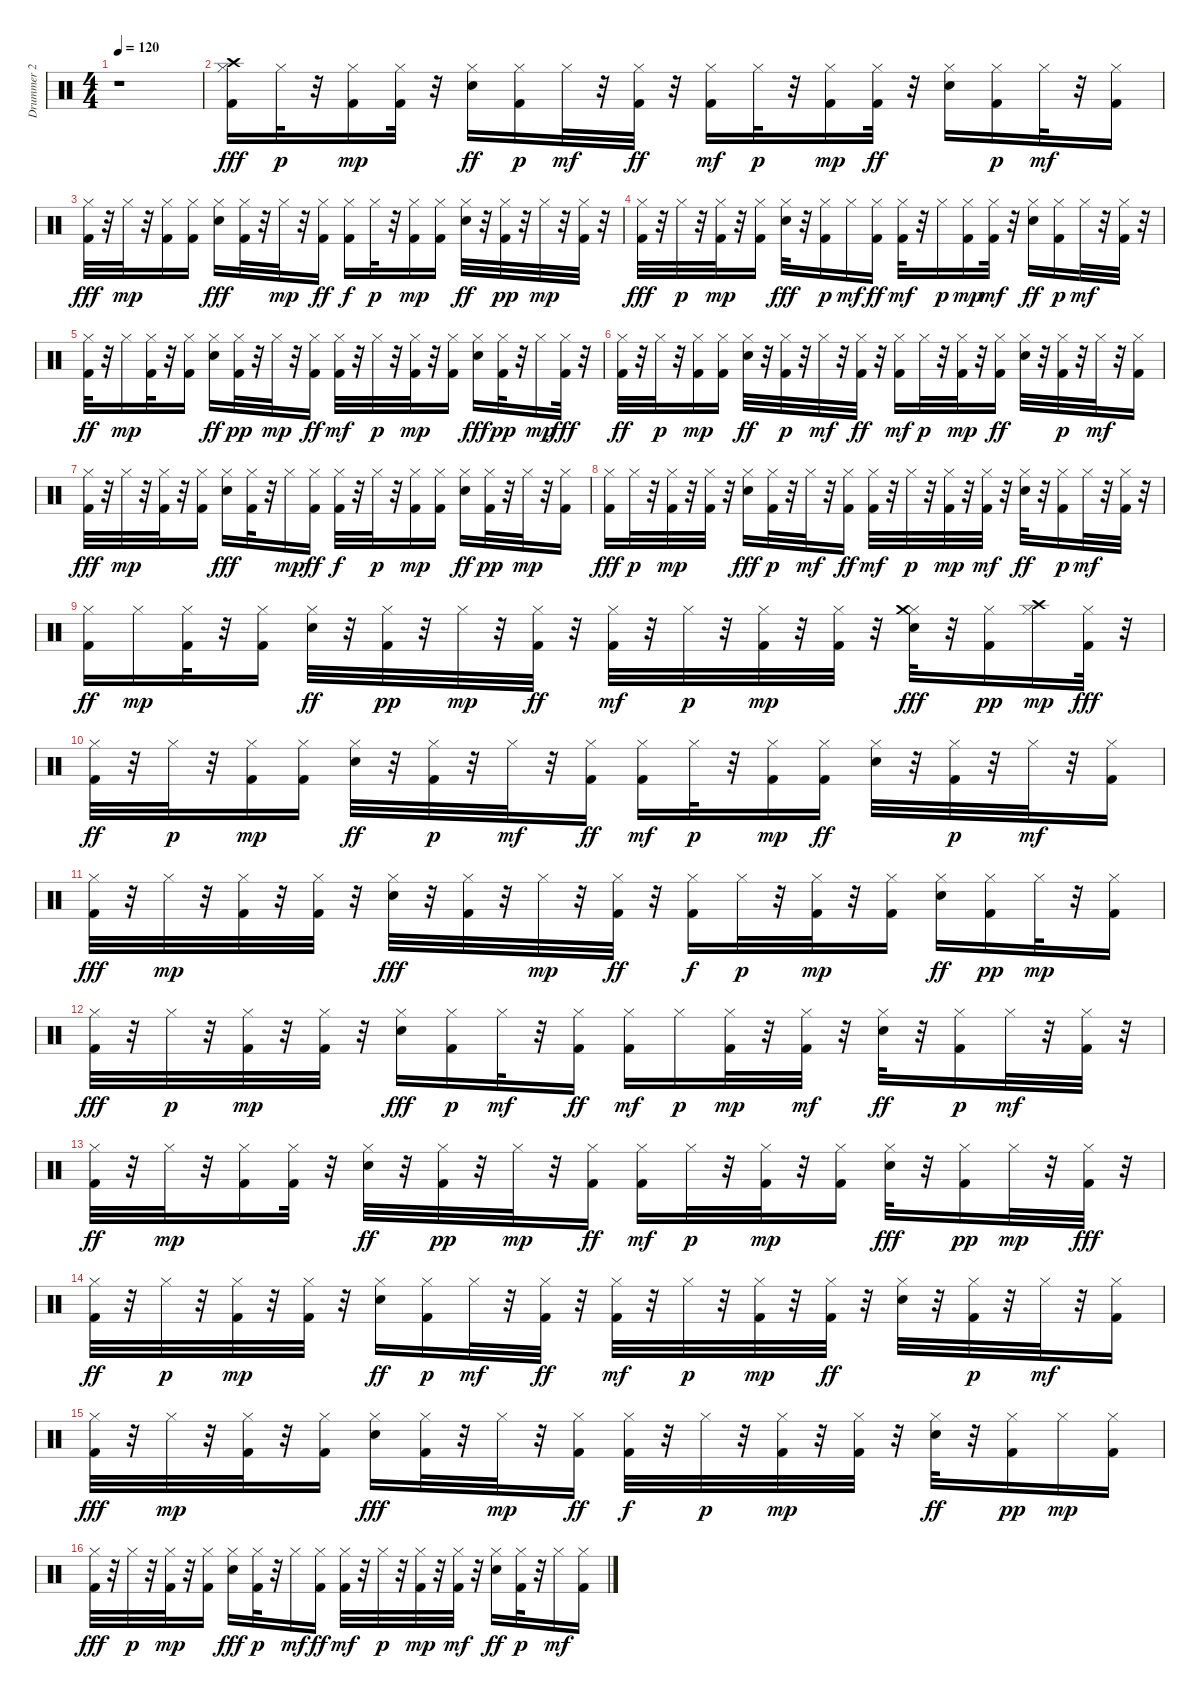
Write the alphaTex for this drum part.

\track ("Drummer 2" "Drummer 2") {instrument percussion}
\staff {score}
\articulation defaults
\ts (4 4)
\tempo 120
\clef neutral
\ks c
r.1{dy fff} |
("Kick (hit) 2" "Hi-Hat (closed)" "Crash high (hit)").16 "Hi-Hat (closed)".32{dy p} r.32 ("Kick (hit) 2" "Hi-Hat (closed)").16{dy mp} ("Kick (hit) 2" "Hi-Hat (closed)").32 r.32 ("Hi-Hat (closed)" "Snare (hit) 2").16{dy ff} ("Kick (hit) 2" "Hi-Hat (closed)").16{dy p} "Hi-Hat (closed)".32{dy mf} r.32 ("Kick (hit) 2" "Hi-Hat (closed)").32{dy ff} r.32 ("Kick (hit) 2" "Hi-Hat (closed)").16{dy mf} "Hi-Hat (closed)".32{dy p} r.32 ("Kick (hit) 2" "Hi-Hat (closed)").16{dy mp} ("Kick (hit) 2" "Hi-Hat (closed)").32{dy ff} r.32 ("Hi-Hat (closed)" "Snare (hit) 2").16 ("Kick (hit) 2" "Hi-Hat (closed)").16{dy p} "Hi-Hat (closed)".32{dy mf} r.32 ("Kick (hit) 2" "Hi-Hat (closed)").16 |
("Hi-Hat (closed)" "Kick (hit) 2").32{dy fff} r.32 "Hi-Hat (closed)".32{dy mp} r.32 ("Kick (hit) 2" "Hi-Hat (closed)").16 ("Kick (hit) 2" "Hi-Hat (closed)").16 ("Hi-Hat (closed)" "Snare (hit) 2").16{dy fff} ("Hi-Hat (closed)" "Kick (hit) 2").32 r.32 "Hi-Hat (closed)".32{dy mp} r.32 ("Kick (hit) 2" "Hi-Hat (closed)").16{dy ff} ("Hi-Hat (closed)" "Kick (hit) 2").16{dy f} "Hi-Hat (closed)".32{dy p} r.32 ("Kick (hit) 2" "Hi-Hat (closed)").16{dy mp} ("Kick (hit) 2" "Hi-Hat (closed)").16 ("Hi-Hat (closed)" "Snare (hit) 2").32{dy ff} r.32 ("Kick (hit) 2" "Hi-Hat (closed)").32{dy pp} r.32 "Hi-Hat (closed)".32{dy mp} r.32 ("Kick (hit) 2" "Hi-Hat (closed)").32 r.32 |
("Hi-Hat (closed)" "Kick (hit) 2").32{dy fff} r.32 "Hi-Hat (closed)".32{dy p} r.32 ("Kick (hit) 2" "Hi-Hat (closed)").32{dy mp} r.32 ("Kick (hit) 2" "Hi-Hat (closed)").16 ("Hi-Hat (closed)" "Snare (hit) 2").32{dy fff} r.32 ("Kick (hit) 2" "Hi-Hat (closed)").16{dy p} "Hi-Hat (closed)".16{dy mf} ("Hi-Hat (closed)" "Kick (hit) 2").16{dy ff} ("Kick (hit) 2" "Hi-Hat (closed)").32{dy mf} r.32 "Hi-Hat (closed)".16{dy p} ("Kick (hit) 2" "Hi-Hat (closed)").16{dy mp} ("Hi-Hat (closed)" "Kick (hit) 2").32{dy mf} r.32 ("Hi-Hat (closed)" "Snare (hit) 2").16{dy ff} ("Kick (hit) 2" "Hi-Hat (closed)").16{dy p} "Hi-Hat (closed)".32{dy mf} r.32 ("Kick (hit) 2" "Hi-Hat (closed)").32 r.32 |
("Kick (hit) 2" "Hi-Hat (closed)").32{dy ff} r.32 "Hi-Hat (closed)".16{dy mp} ("Kick (hit) 2" "Hi-Hat (closed)").32 r.32 ("Kick (hit) 2" "Hi-Hat (closed)").16 ("Hi-Hat (closed)" "Snare (hit) 2").16{dy ff} ("Kick (hit) 2" "Hi-Hat (closed)").32{dy pp} r.32 "Hi-Hat (closed)".32{dy mp} r.32 ("Kick (hit) 2" "Hi-Hat (closed)").16{dy ff} ("Kick (hit) 2" "Hi-Hat (closed)").32{dy mf} r.32 "Hi-Hat (closed)".32{dy p} r.32 ("Kick (hit) 2" "Hi-Hat (closed)").32{dy mp} r.32 ("Kick (hit) 2" "Hi-Hat (closed)").16 ("Hi-Hat (closed)" "Snare (hit) 2").16{dy fff} ("Kick (hit) 2" "Hi-Hat (closed)").32{dy pp} r.32 "Hi-Hat (closed)".16{dy mp} ("Hi-Hat (closed)" "Kick (hit) 2").32{dy fff} r.32 |
("Kick (hit) 2" "Hi-Hat (closed)").32{dy ff} r.32 "Hi-Hat (closed)".32{dy p} r.32 ("Kick (hit) 2" "Hi-Hat (closed)").16{dy mp} ("Kick (hit) 2" "Hi-Hat (closed)").16 ("Hi-Hat (closed)" "Snare (hit) 2").32{dy ff} r.32 ("Kick (hit) 2" "Hi-Hat (closed)").32{dy p} r.32 "Hi-Hat (closed)".32{dy mf} r.32 ("Kick (hit) 2" "Hi-Hat (closed)").32{dy ff} r.32 ("Kick (hit) 2" "Hi-Hat (closed)").16{dy mf} "Hi-Hat (closed)".32{dy p} r.32 ("Kick (hit) 2" "Hi-Hat (closed)").32{dy mp} r.32 ("Kick (hit) 2" "Hi-Hat (closed)").16{dy ff} ("Hi-Hat (closed)" "Snare (hit) 2").32 r.32 ("Kick (hit) 2" "Hi-Hat (closed)").32{dy p} r.32 "Hi-Hat (closed)".32{dy mf} r.32 ("Kick (hit) 2" "Hi-Hat (closed)").16 |
("Hi-Hat (closed)" "Kick (hit) 2").32{dy fff} r.32 "Hi-Hat (closed)".32{dy mp} r.32 ("Kick (hit) 2" "Hi-Hat (closed)").32 r.32 ("Kick (hit) 2" "Hi-Hat (closed)").16 ("Hi-Hat (closed)" "Snare (hit) 2").16{dy fff} ("Hi-Hat (closed)" "Kick (hit) 2").32 r.32 "Hi-Hat (closed)".16{dy mp} ("Kick (hit) 2" "Hi-Hat (closed)").16{dy ff} ("Hi-Hat (closed)" "Kick (hit) 2").32{dy f} r.32 "Hi-Hat (closed)".32{dy p} r.32 ("Kick (hit) 2" "Hi-Hat (closed)").16{dy mp} ("Kick (hit) 2" "Hi-Hat (closed)").16 ("Hi-Hat (closed)" "Snare (hit) 2").16{dy ff} ("Kick (hit) 2" "Hi-Hat (closed)").32{dy pp} r.32 "Hi-Hat (closed)".32{dy mp} r.32 ("Kick (hit) 2" "Hi-Hat (closed)").16 |
("Hi-Hat (closed)" "Kick (hit) 2").16{dy fff} "Hi-Hat (closed)".32{dy p} r.32 ("Kick (hit) 2" "Hi-Hat (closed)").32{dy mp} r.32 ("Kick (hit) 2" "Hi-Hat (closed)").32 r.32 ("Hi-Hat (closed)" "Snare (hit) 2").16{dy fff} ("Kick (hit) 2" "Hi-Hat (closed)").32{dy p} r.32 "Hi-Hat (closed)".32{dy mf} r.32 ("Hi-Hat (closed)" "Kick (hit) 2").16{dy ff} ("Kick (hit) 2" "Hi-Hat (closed)").32{dy mf} r.32 "Hi-Hat (closed)".32{dy p} r.32 ("Kick (hit) 2" "Hi-Hat (closed)").32{dy mp} r.32 ("Hi-Hat (closed)" "Kick (hit) 2").32{dy mf} r.32 ("Hi-Hat (closed)" "Snare (hit) 2").32{dy ff} r.32 ("Kick (hit) 2" "Hi-Hat (closed)").16{dy p} "Hi-Hat (closed)".32{dy mf} r.32 ("Kick (hit) 2" "Hi-Hat (closed)").32 r.32 |
("Kick (hit) 2" "Hi-Hat (closed)").16{dy ff} "Hi-Hat (closed)".16{dy mp} ("Kick (hit) 2" "Hi-Hat (closed)").32 r.32 ("Kick (hit) 2" "Hi-Hat (closed)").16 ("Hi-Hat (closed)" "Snare (hit) 2").32{dy ff} r.32 ("Kick (hit) 2" "Hi-Hat (closed)").32{dy pp} r.32 "Hi-Hat (closed)".32{dy mp} r.32 ("Kick (hit) 2" "Hi-Hat (closed)").32{dy ff} r.32 ("Kick (hit) 2" "Hi-Hat (closed)").32{dy mf} r.32 "Hi-Hat (closed)".32{dy p} r.32 ("Kick (hit) 2" "Hi-Hat (closed)").32{dy mp} r.32 ("Kick (hit) 2" "Hi-Hat (closed)").32 r.32 ("Hi-Hat (closed)" "Crash medium (hit)" "Snare (hit) 2").32{dy fff} r.32 ("Kick (hit) 2" "Hi-Hat (closed)").16{dy pp} ("Hi-Hat (closed)" "Crash high (hit)").16{dy mp} ("Hi-Hat (closed)" "Kick (hit) 2").32{dy fff} r.32 |
("Kick (hit) 2" "Hi-Hat (closed)").32{dy ff} r.32 "Hi-Hat (closed)".32{dy p} r.32 ("Kick (hit) 2" "Hi-Hat (closed)").16{dy mp} ("Kick (hit) 2" "Hi-Hat (closed)").16 ("Hi-Hat (closed)" "Snare (hit) 2").32{dy ff} r.32 ("Kick (hit) 2" "Hi-Hat (closed)").32{dy p} r.32 "Hi-Hat (closed)".32{dy mf} r.32 ("Kick (hit) 2" "Hi-Hat (closed)").16{dy ff} ("Kick (hit) 2" "Hi-Hat (closed)").16{dy mf} "Hi-Hat (closed)".32{dy p} r.32 ("Kick (hit) 2" "Hi-Hat (closed)").16{dy mp} ("Kick (hit) 2" "Hi-Hat (closed)").16{dy ff} ("Hi-Hat (closed)" "Snare (hit) 2").32 r.32 ("Kick (hit) 2" "Hi-Hat (closed)").32{dy p} r.32 "Hi-Hat (closed)".32{dy mf} r.32 ("Kick (hit) 2" "Hi-Hat (closed)").16 |
("Hi-Hat (closed)" "Kick (hit) 2").32{dy fff} r.32 "Hi-Hat (closed)".32{dy mp} r.32 ("Kick (hit) 2" "Hi-Hat (closed)").32 r.32 ("Kick (hit) 2" "Hi-Hat (closed)").32 r.32 ("Hi-Hat (closed)" "Snare (hit) 2").32{dy fff} r.32 ("Hi-Hat (closed)" "Kick (hit) 2").32 r.32 "Hi-Hat (closed)".32{dy mp} r.32 ("Kick (hit) 2" "Hi-Hat (closed)").32{dy ff} r.32 ("Hi-Hat (closed)" "Kick (hit) 2").16{dy f} "Hi-Hat (closed)".32{dy p} r.32 ("Kick (hit) 2" "Hi-Hat (closed)").32{dy mp} r.32 ("Kick (hit) 2" "Hi-Hat (closed)").16 ("Hi-Hat (closed)" "Snare (hit) 2").16{dy ff} ("Kick (hit) 2" "Hi-Hat (closed)").16{dy pp} "Hi-Hat (closed)".32{dy mp} r.32 ("Kick (hit) 2" "Hi-Hat (closed)").16 |
("Hi-Hat (closed)" "Kick (hit) 2").32{dy fff} r.32 "Hi-Hat (closed)".32{dy p} r.32 ("Kick (hit) 2" "Hi-Hat (closed)").32{dy mp} r.32 ("Kick (hit) 2" "Hi-Hat (closed)").32 r.32 ("Hi-Hat (closed)" "Snare (hit) 2").16{dy fff} ("Kick (hit) 2" "Hi-Hat (closed)").16{dy p} "Hi-Hat (closed)".32{dy mf} r.32 ("Hi-Hat (closed)" "Kick (hit) 2").16{dy ff} ("Kick (hit) 2" "Hi-Hat (closed)").16{dy mf} "Hi-Hat (closed)".16{dy p} ("Kick (hit) 2" "Hi-Hat (closed)").32{dy mp} r.32 ("Hi-Hat (closed)" "Kick (hit) 2").32{dy mf} r.32 ("Hi-Hat (closed)" "Snare (hit) 2").32{dy ff} r.32 ("Kick (hit) 2" "Hi-Hat (closed)").16{dy p} "Hi-Hat (closed)".32{dy mf} r.32 ("Kick (hit) 2" "Hi-Hat (closed)").32 r.32 |
("Kick (hit) 2" "Hi-Hat (closed)").32{dy ff} r.32 "Hi-Hat (closed)".32{dy mp} r.32 ("Kick (hit) 2" "Hi-Hat (closed)").16 ("Kick (hit) 2" "Hi-Hat (closed)").32 r.32 ("Hi-Hat (closed)" "Snare (hit) 2").32{dy ff} r.32 ("Kick (hit) 2" "Hi-Hat (closed)").32{dy pp} r.32 "Hi-Hat (closed)".32{dy mp} r.32 ("Kick (hit) 2" "Hi-Hat (closed)").16{dy ff} ("Kick (hit) 2" "Hi-Hat (closed)").16{dy mf} "Hi-Hat (closed)".32{dy p} r.32 ("Kick (hit) 2" "Hi-Hat (closed)").32{dy mp} r.32 ("Kick (hit) 2" "Hi-Hat (closed)").16 ("Hi-Hat (closed)" "Snare (hit) 2").32{dy fff} r.32 ("Kick (hit) 2" "Hi-Hat (closed)").16{dy pp} "Hi-Hat (closed)".32{dy mp} r.32 ("Hi-Hat (closed)" "Kick (hit) 2").32{dy fff} r.32 |
("Kick (hit) 2" "Hi-Hat (closed)").32{dy ff} r.32 "Hi-Hat (closed)".32{dy p} r.32 ("Kick (hit) 2" "Hi-Hat (closed)").32{dy mp} r.32 ("Kick (hit) 2" "Hi-Hat (closed)").32 r.32 ("Hi-Hat (closed)" "Snare (hit) 2").16{dy ff} ("Kick (hit) 2" "Hi-Hat (closed)").16{dy p} "Hi-Hat (closed)".32{dy mf} r.32 ("Kick (hit) 2" "Hi-Hat (closed)").32{dy ff} r.32 ("Kick (hit) 2" "Hi-Hat (closed)").32{dy mf} r.32 "Hi-Hat (closed)".32{dy p} r.32 ("Kick (hit) 2" "Hi-Hat (closed)").32{dy mp} r.32 ("Kick (hit) 2" "Hi-Hat (closed)").32{dy ff} r.32 ("Hi-Hat (closed)" "Snare (hit) 2").32 r.32 ("Kick (hit) 2" "Hi-Hat (closed)").32{dy p} r.32 "Hi-Hat (closed)".32{dy mf} r.32 ("Kick (hit) 2" "Hi-Hat (closed)").16 |
("Hi-Hat (closed)" "Kick (hit) 2").32{dy fff} r.32 "Hi-Hat (closed)".32{dy mp} r.32 ("Kick (hit) 2" "Hi-Hat (closed)").32 r.32 ("Kick (hit) 2" "Hi-Hat (closed)").16 ("Hi-Hat (closed)" "Snare (hit) 2").16{dy fff} ("Hi-Hat (closed)" "Kick (hit) 2").32 r.32 "Hi-Hat (closed)".32{dy mp} r.32 ("Kick (hit) 2" "Hi-Hat (closed)").16{dy ff} ("Hi-Hat (closed)" "Kick (hit) 2").32{dy f} r.32 "Hi-Hat (closed)".32{dy p} r.32 ("Kick (hit) 2" "Hi-Hat (closed)").32{dy mp} r.32 ("Kick (hit) 2" "Hi-Hat (closed)").32 r.32 ("Hi-Hat (closed)" "Snare (hit) 2").32{dy ff} r.32 ("Kick (hit) 2" "Hi-Hat (closed)").16{dy pp} "Hi-Hat (closed)".16{dy mp} ("Kick (hit) 2" "Hi-Hat (closed)").16 |
("Hi-Hat (closed)" "Kick (hit) 2").32{dy fff} r.32 "Hi-Hat (closed)".32{dy p} r.32 ("Kick (hit) 2" "Hi-Hat (closed)").32{dy mp} r.32 ("Kick (hit) 2" "Hi-Hat (closed)").16 ("Hi-Hat (closed)" "Snare (hit) 2").16{dy fff} ("Kick (hit) 2" "Hi-Hat (closed)").32{dy p} r.32 "Hi-Hat (closed)".16{dy mf} ("Hi-Hat (closed)" "Kick (hit) 2").16{dy ff} ("Kick (hit) 2" "Hi-Hat (closed)").32{dy mf} r.32 "Hi-Hat (closed)".32{dy p} r.32 ("Kick (hit) 2" "Hi-Hat (closed)").32{dy mp} r.32 ("Hi-Hat (closed)" "Kick (hit) 2").32{dy mf} r.32 ("Hi-Hat (closed)" "Snare (hit) 2").16{dy ff} ("Kick (hit) 2" "Hi-Hat (closed)").32{dy p} r.32 "Hi-Hat (closed)".16{dy mf} ("Kick (hit) 2" "Hi-Hat (closed)").16
